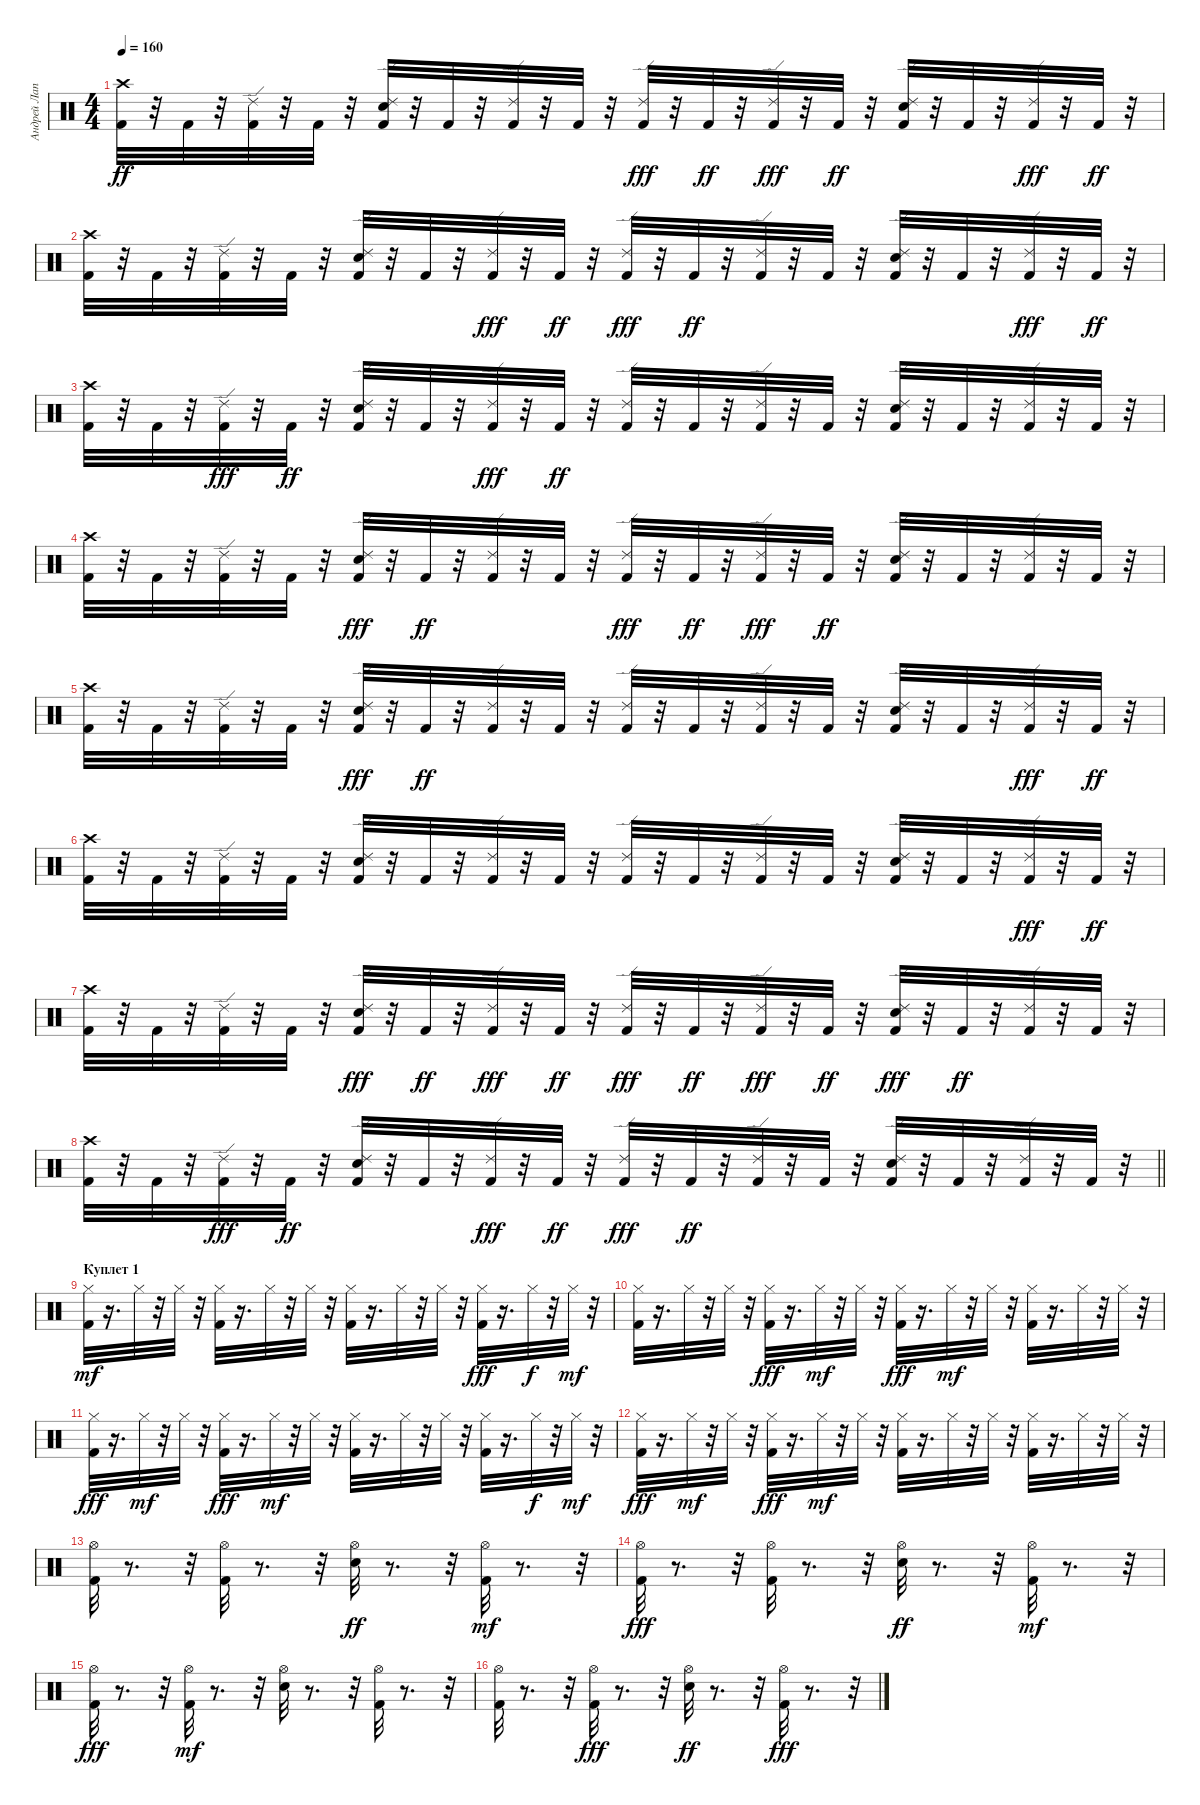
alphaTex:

\track ("Андрей Лаптев" "Андрей Лап") {instrument percussion}
\staff {score}
\articulation defaults
\ts (4 4)
\tempo 160
\clef neutral
\ks c
("Crash high (hit)" "Kick (hit) 2").32{dy ff} r.32 "Kick (hit) 2".32 r.32 ("Ride (edge) 2" "Kick (hit) 2").32 r.32 "Kick (hit) 2".32 r.32 ("Ride (edge) 2" "Kick (hit) 2" "Electric Snare (hit)").32 r.32 "Kick (hit) 2".32 r.32 ("Ride (edge) 2" "Kick (hit) 2").32 r.32 "Kick (hit) 2".32 r.32 ("Kick (hit) 2" "Ride (edge) 2").32{dy fff} r.32 "Kick (hit) 2".32{dy ff} r.32 ("Kick (hit) 2" "Ride (edge) 2").32{dy fff} r.32 "Kick (hit) 2".32{dy ff} r.32 ("Kick (hit) 2" "Ride (edge) 2" "Electric Snare (hit)").32 r.32 "Kick (hit) 2".32 r.32 ("Kick (hit) 2" "Ride (edge) 2").32{dy fff} r.32 "Kick (hit) 2".32{dy ff} r.32 |
("Crash high (hit)" "Kick (hit) 2").32 r.32 "Kick (hit) 2".32 r.32 ("Ride (edge) 2" "Kick (hit) 2").32 r.32 "Kick (hit) 2".32 r.32 ("Kick (hit) 2" "Ride (edge) 2" "Electric Snare (hit)").32 r.32 "Kick (hit) 2".32 r.32 ("Kick (hit) 2" "Ride (edge) 2").32{dy fff} r.32 "Kick (hit) 2".32{dy ff} r.32 ("Kick (hit) 2" "Ride (edge) 2").32{dy fff} r.32 "Kick (hit) 2".32{dy ff} r.32 ("Ride (edge) 2" "Kick (hit) 2").32 r.32 "Kick (hit) 2".32 r.32 ("Electric Snare (hit)" "Ride (edge) 2" "Kick (hit) 2").32 r.32 "Kick (hit) 2".32 r.32 ("Kick (hit) 2" "Ride (edge) 2").32{dy fff} r.32 "Kick (hit) 2".32{dy ff} r.32 |
("Kick (hit) 2" "Crash high (hit)").32 r.32 "Kick (hit) 2".32 r.32 ("Kick (hit) 2" "Ride (edge) 2").32{dy fff} r.32 "Kick (hit) 2".32{dy ff} r.32 ("Electric Snare (hit)" "Ride (edge) 2" "Kick (hit) 2").32 r.32 "Kick (hit) 2".32 r.32 ("Kick (hit) 2" "Ride (edge) 2").32{dy fff} r.32 "Kick (hit) 2".32{dy ff} r.32 ("Ride (edge) 2" "Kick (hit) 2").32 r.32 "Kick (hit) 2".32 r.32 ("Ride (edge) 2" "Kick (hit) 2").32 r.32 "Kick (hit) 2".32 r.32 ("Kick (hit) 2" "Ride (edge) 2" "Electric Snare (hit)").32 r.32 "Kick (hit) 2".32 r.32 ("Ride (edge) 2" "Kick (hit) 2").32 r.32 "Kick (hit) 2".32 r.32 |
("Crash high (hit)" "Kick (hit) 2").32 r.32 "Kick (hit) 2".32 r.32 ("Ride (edge) 2" "Kick (hit) 2").32 r.32 "Kick (hit) 2".32 r.32 ("Kick (hit) 2" "Electric Snare (hit)" "Ride (edge) 2").32{dy fff} r.32 "Kick (hit) 2".32{dy ff} r.32 ("Ride (edge) 2" "Kick (hit) 2").32 r.32 "Kick (hit) 2".32 r.32 ("Kick (hit) 2" "Ride (edge) 2").32{dy fff} r.32 "Kick (hit) 2".32{dy ff} r.32 ("Kick (hit) 2" "Ride (edge) 2").32{dy fff} r.32 "Kick (hit) 2".32{dy ff} r.32 ("Ride (edge) 2" "Electric Snare (hit)" "Kick (hit) 2").32 r.32 "Kick (hit) 2".32 r.32 ("Ride (edge) 2" "Kick (hit) 2").32 r.32 "Kick (hit) 2".32 r.32 |
("Kick (hit) 2" "Crash high (hit)").32 r.32 "Kick (hit) 2".32 r.32 ("Ride (edge) 2" "Kick (hit) 2").32 r.32 "Kick (hit) 2".32 r.32 ("Electric Snare (hit)" "Kick (hit) 2" "Ride (edge) 2").32{dy fff} r.32 "Kick (hit) 2".32{dy ff} r.32 ("Ride (edge) 2" "Kick (hit) 2").32 r.32 "Kick (hit) 2".32 r.32 ("Ride (edge) 2" "Kick (hit) 2").32 r.32 "Kick (hit) 2".32 r.32 ("Ride (edge) 2" "Kick (hit) 2").32 r.32 "Kick (hit) 2".32 r.32 ("Kick (hit) 2" "Ride (edge) 2" "Electric Snare (hit)").32 r.32 "Kick (hit) 2".32 r.32 ("Kick (hit) 2" "Ride (edge) 2").32{dy fff} r.32 "Kick (hit) 2".32{dy ff} r.32 |
("Kick (hit) 2" "Crash high (hit)").32 r.32 "Kick (hit) 2".32 r.32 ("Ride (edge) 2" "Kick (hit) 2").32 r.32 "Kick (hit) 2".32 r.32 ("Kick (hit) 2" "Ride (edge) 2" "Electric Snare (hit)").32 r.32 "Kick (hit) 2".32 r.32 ("Ride (edge) 2" "Kick (hit) 2").32 r.32 "Kick (hit) 2".32 r.32 ("Ride (edge) 2" "Kick (hit) 2").32 r.32 "Kick (hit) 2".32 r.32 ("Ride (edge) 2" "Kick (hit) 2").32 r.32 "Kick (hit) 2".32 r.32 ("Ride (edge) 2" "Kick (hit) 2" "Electric Snare (hit)").32 r.32 "Kick (hit) 2".32 r.32 ("Kick (hit) 2" "Ride (edge) 2").32{dy fff} r.32 "Kick (hit) 2".32{dy ff} r.32 |
("Crash high (hit)" "Kick (hit) 2").32 r.32 "Kick (hit) 2".32 r.32 ("Ride (edge) 2" "Kick (hit) 2").32 r.32 "Kick (hit) 2".32 r.32 ("Electric Snare (hit)" "Kick (hit) 2" "Ride (edge) 2").32{dy fff} r.32 "Kick (hit) 2".32{dy ff} r.32 ("Kick (hit) 2" "Ride (edge) 2").32{dy fff} r.32 "Kick (hit) 2".32{dy ff} r.32 ("Kick (hit) 2" "Ride (edge) 2").32{dy fff} r.32 "Kick (hit) 2".32{dy ff} r.32 ("Kick (hit) 2" "Ride (edge) 2").32{dy fff} r.32 "Kick (hit) 2".32{dy ff} r.32 ("Electric Snare (hit)" "Kick (hit) 2" "Ride (edge) 2").32{dy fff} r.32 "Kick (hit) 2".32{dy ff} r.32 ("Ride (edge) 2" "Kick (hit) 2").32 r.32 "Kick (hit) 2".32 r.32 |
\barLineRight lightlight
("Crash high (hit)" "Kick (hit) 2").32 r.32 "Kick (hit) 2".32 r.32 ("Kick (hit) 2" "Ride (edge) 2").32{dy fff} r.32 "Kick (hit) 2".32{dy ff} r.32 ("Kick (hit) 2" "Ride (edge) 2" "Electric Snare (hit)").32 r.32 "Kick (hit) 2".32 r.32 ("Kick (hit) 2" "Ride (edge) 2").32{dy fff} r.32 "Kick (hit) 2".32{dy ff} r.32 ("Kick (hit) 2" "Ride (edge) 2").32{dy fff} r.32 "Kick (hit) 2".32{dy ff} r.32 ("Ride (edge) 2" "Kick (hit) 2").32 r.32 "Kick (hit) 2".32 r.32 ("Kick (hit) 2" "Ride (edge) 2" "Electric Snare (hit)").32 r.32 "Kick (hit) 2".32 r.32 ("Ride (edge) 2" "Kick (hit) 2").32 r.32 "Kick (hit) 2".32 r.32 |
\section ("" "Куплет 1")
("Kick (hit) 2" "Hi-Hat (closed)").32{dy mf} r.16{d} "Hi-Hat (closed)".32 r.32 "Hi-Hat (closed)".32 r.32 ("Kick (hit) 2" "Hi-Hat (closed)").32 r.16{d} "Hi-Hat (closed)".32 r.32 "Hi-Hat (closed)".32 r.32 ("Kick (hit) 2" "Hi-Hat (closed)").32 r.16{d} "Hi-Hat (closed)".32 r.32 "Hi-Hat (closed)".32 r.32 ("Hi-Hat (closed)" "Kick (hit) 2").32{dy fff} r.16{d} "Hi-Hat (closed)".32{dy f} r.32 "Hi-Hat (closed)".32{dy mf} r.32 |
("Kick (hit) 2" "Hi-Hat (closed)").32 r.16{d} "Hi-Hat (closed)".32 r.32 "Hi-Hat (closed)".32 r.32 ("Hi-Hat (closed)" "Kick (hit) 2").32{dy fff} r.16{d} "Hi-Hat (closed)".32{dy mf} r.32 "Hi-Hat (closed)".32 r.32 ("Hi-Hat (closed)" "Kick (hit) 2").32{dy fff} r.16{d} "Hi-Hat (closed)".32{dy mf} r.32 "Hi-Hat (closed)".32 r.32 ("Kick (hit) 2" "Hi-Hat (closed)").32 r.16{d} "Hi-Hat (closed)".32 r.32 "Hi-Hat (closed)".32 r.32 |
("Hi-Hat (closed)" "Kick (hit) 2").32{dy fff} r.16{d} "Hi-Hat (closed)".32{dy mf} r.32 "Hi-Hat (closed)".32 r.32 ("Hi-Hat (closed)" "Kick (hit) 2").32{dy fff} r.16{d} "Hi-Hat (closed)".32{dy mf} r.32 "Hi-Hat (closed)".32 r.32 ("Kick (hit) 2" "Hi-Hat (closed)").32 r.16{d} "Hi-Hat (closed)".32 r.32 "Hi-Hat (closed)".32 r.32 ("Kick (hit) 2" "Hi-Hat (closed)").32 r.16{d} "Hi-Hat (closed)".32{dy f} r.32 "Hi-Hat (closed)".32{dy mf} r.32 |
("Hi-Hat (closed)" "Kick (hit) 2").32{dy fff} r.16{d} "Hi-Hat (closed)".32{dy mf} r.32 "Hi-Hat (closed)".32 r.32 ("Hi-Hat (closed)" "Kick (hit) 2").32{dy fff} r.16{d} "Hi-Hat (closed)".32{dy mf} r.32 "Hi-Hat (closed)".32 r.32 ("Kick (hit) 2" "Hi-Hat (closed)").32 r.16{d} "Hi-Hat (closed)".32 r.32 "Hi-Hat (closed)".32 r.32 ("Kick (hit) 2" "Hi-Hat (closed)").32 r.16{d} "Hi-Hat (closed)".32 r.32 "Hi-Hat (closed)".32 r.32 |
("Kick (hit) 2" "Hi-Hat (open)").32 r.8{d} r.32 ("Kick (hit) 2" "Hi-Hat (open)").32 r.8{d} r.32 ("Hi-Hat (open)" "Electric Snare (hit)").32{dy ff} r.8{d} r.32 ("Hi-Hat (open)" "Kick (hit) 2").32{dy mf} r.8{d} r.32 |
("Hi-Hat (open)" "Kick (hit) 2").32{dy fff} r.8{d} r.32 ("Hi-Hat (open)" "Kick (hit) 2").32 r.8{d} r.32 ("Hi-Hat (open)" "Electric Snare (hit)").32{dy ff} r.8{d} r.32 ("Hi-Hat (open)" "Kick (hit) 2").32{dy mf} r.8{d} r.32 |
("Hi-Hat (open)" "Kick (hit) 2").32{dy fff} r.8{d} r.32 ("Kick (hit) 2" "Hi-Hat (open)").32{dy mf} r.8{d} r.32 ("Electric Snare (hit)" "Hi-Hat (open)").32 r.8{d} r.32 ("Kick (hit) 2" "Hi-Hat (open)").32 r.8{d} r.32 |
("Kick (hit) 2" "Hi-Hat (open)").32 r.8{d} r.32 ("Hi-Hat (open)" "Kick (hit) 2").32{dy fff} r.8{d} r.32 ("Hi-Hat (open)" "Electric Snare (hit)").32{dy ff} r.8{d} r.32 ("Hi-Hat (open)" "Kick (hit) 2").32{dy fff} r.8{d} r.32
